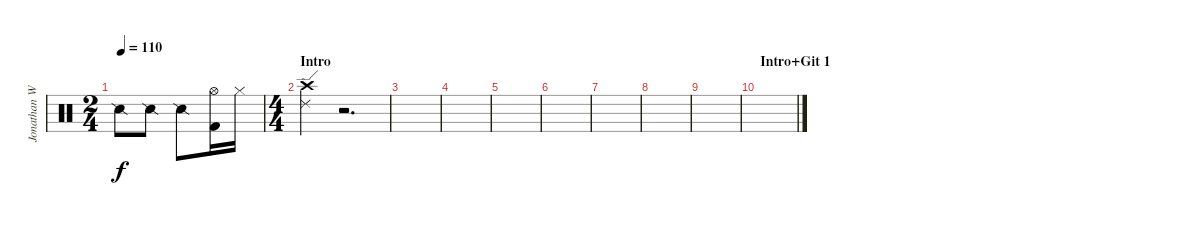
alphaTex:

\track ("Jonathan Wenzel" "Jonathan W") {instrument percussion}
\staff {score}
\articulation defaults
\ts (2 4)
\tempo 110
\clef neutral
\ks c "Snare (side stick) 2".8{dy f} "Snare (side stick) 2".8 "Snare (side stick) 2".8
("Hi-Hat (open)" "Kick (hit) 2").16 "Hi-Hat (closed)".16 |
\ts (4 4)
\section ("" "Intro")
("Crash high (hit)" "Ride (edge) 2").4 r.2{d} |
|
|
|
|
|
|
|
\section ("" "Intro+Git 1")
